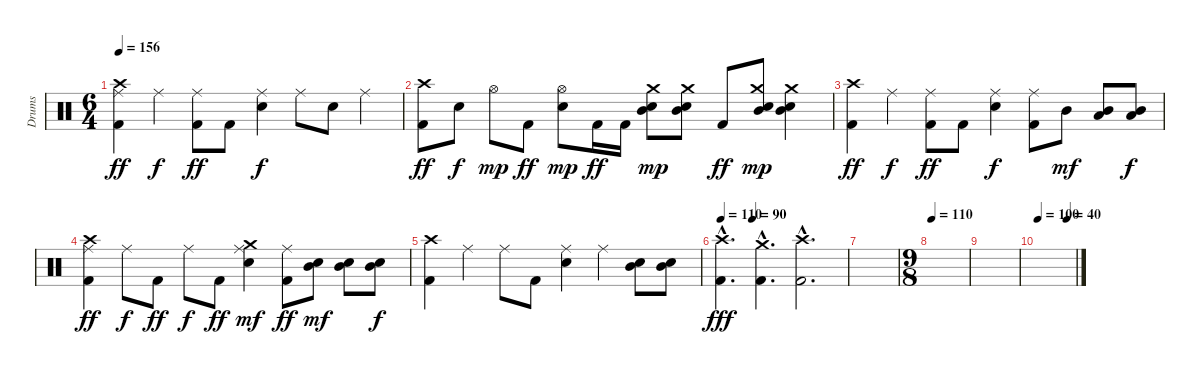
\track ("Drums" "Drums") {instrument percussion}
\staff {score}
\articulation defaults
\ts (6 4)
\tempo 156
\clef neutral
\ks c
("Crash high (hit)" "Ride (middle)" "Kick (hit) 2").4{dy ff} "Ride (middle)".4{dy f} ("Ride (middle)" "Kick (hit) 2").8{dy ff} "Kick (hit) 2".8 ("Ride (middle)" "Electric Snare (hit)").4{dy f} "Ride (middle)".8 "Electric Snare (hit)".8 "Ride (middle)".4 |
("Crash high (hit)" "Kick (hit) 2").8{dy ff} "Electric Snare (hit)".8{dy f} "Hi-Hat (open)".8{dy mp} "Kick (hit) 2".8{dy ff} ("Hi-Hat (open)" "Electric Snare (hit)").8{dy mp} "Kick (hit) 2".16{dy ff} "Kick (hit) 2".16 ("Crash medium (hit)" "Electric Snare (hit)" "Mid Tom (hit)").8{dy mp} ("Crash medium (hit)" "Electric Snare (hit)" "Mid Tom (hit)").8 "Kick (hit) 2".8{dy ff} ("Crash medium (hit)" "Electric Snare (hit)" "Mid Tom (hit)").8{dy mp} ("Crash medium (hit)" "Electric Snare (hit)" "Mid Tom (hit)").4 |
("Crash high (hit)" "Kick (hit) 2").4{dy ff} "Ride (middle)".4{dy f} ("Ride (middle)" "Kick (hit) 2").8{dy ff} "Kick (hit) 2".8 ("Ride (middle)" "Electric Snare (hit)").4{dy f} ("Ride (middle)" "Kick (hit) 2").8 "Mid Tom (hit)".8{dy mf} ("Mid Tom (hit)" "Low Tom (hit)").8 ("Mid Tom (hit)" "Low Tom (hit)").8{dy f} |
("Crash high (hit)" "Ride (middle)" "Kick (hit) 2").4{dy ff} "Ride (middle)".8{dy f} "Kick (hit) 2".8{dy ff} "Ride (middle)".8{dy f} "Kick (hit) 2".8{dy ff} ("Crash medium (hit)" "Ride (middle)" "Electric Snare (hit)").4{dy mf} ("Ride (middle)" "Kick (hit) 2").8{dy ff} ("Electric Snare (hit)" "Mid Tom (hit)").8{dy mf} ("Electric Snare (hit)" "Mid Tom (hit)").8 ("Electric Snare (hit)" "Mid Tom (hit)").8{dy f} |
("Crash high (hit)" "Kick (hit) 2").4 "Ride (middle)".4 "Ride (middle)".8 "Kick (hit) 2".8 ("Ride (middle)" "Electric Snare (hit)").4 "Ride (middle)".4 ("Electric Snare (hit)" "Mid Tom (hit)").8 ("Electric Snare (hit)" "Mid Tom (hit)").8 |
\tempo 110
\tempo (90 0.25)
("Crash high (hit)"{hac} "Kick (hit) 2"{hac}).4{d dy fff} ("Crash medium (hit)"{hac} "Kick (hit) 2"{hac}).4{d} ("Crash high (hit)"{hac} "Kick (hit) 2"{hac}).2{d} |
|
\ts (9 8)
\tempo 110
|
|
\tempo 100
\tempo (40 0.7777777777777778)
